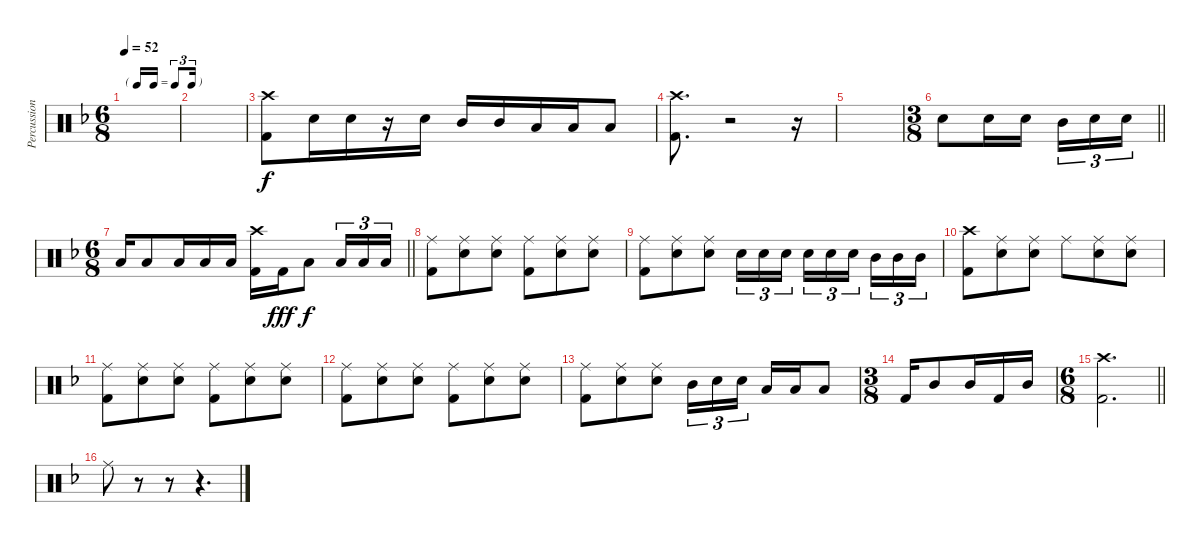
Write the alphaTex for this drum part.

\track ("Percussion" "Percussion") {instrument percussion}
\staff {score}
\articulation defaults
\ts (6 8)
\tf triplet16th
\tempo 52
\clef neutral
\ks f
|
|
("Crash high (hit)" "Kick (hit) 2").8 "Snare (hit) 2".16 "Snare (hit) 2".16 r.16 "Snare (hit) 2".16 "Mid Tom (hit)".16 "Mid Tom (hit)".16 "Low Floor Tom (hit)".16 "Low Floor Tom (hit)".16 "Low Floor Tom (hit)".8 |
("Crash high (hit)" "Kick (hit) 2").8{d} r.2 r.16 |
|
\ts (3 8)
\barLineRight lightlight "Snare (hit) 2".8 "Snare (hit) 2".16 "Snare (hit) 2".16 "Mid Tom (hit)".16{tu (3 2)} "Snare (hit) 2".16{tu (3 2)} "Snare (hit) 2".16{tu (3 2)}
|
\ts (6 8)
\barLineRight lightlight "Low Floor Tom (hit)".16 "Low Floor Tom (hit)".8 "Low Floor Tom (hit)".16 "Low Floor Tom (hit)".16 "Low Floor Tom (hit)".16
("Crash high (hit)" "Kick (hit) 2").16 "Kick (hit) 2".16{dy fff} "Low Floor Tom (hit)".8{dy f} "Low Floor Tom (hit)".16{tu (3 2)} "Low Floor Tom (hit)".16{tu (3 2)} "Low Floor Tom (hit)".16{tu (3 2)} |
("Ride (middle)" "Kick (hit) 2").8 ("Ride (middle)" "Snare (hit) 2").8 ("Ride (middle)" "Snare (hit) 2").8 ("Ride (middle)" "Kick (hit) 2").8 ("Ride (middle)" "Snare (hit) 2").8 ("Ride (middle)" "Snare (hit) 2").8 |
("Ride (middle)" "Kick (hit) 2").8 ("Ride (middle)" "Snare (hit) 2").8 ("Ride (middle)" "Snare (hit) 2").8 "Snare (hit) 2".16{tu (3 2)} "Snare (hit) 2".16{tu (3 2)} "Snare (hit) 2".16{tu (3 2) beam splitsecondary} "Snare (hit) 2".16{tu (3 2)} "Snare (hit) 2".16{tu (3 2)} "Snare (hit) 2".16{tu (3 2) beam splitsecondary} "Mid Tom (hit)".16{tu (3 2)} "Mid Tom (hit)".16{tu (3 2)} "Mid Tom (hit)".16{tu (3 2)} |
("Crash high (hit)" "Kick (hit) 2").8 ("Ride (middle)" "Snare (hit) 2").8 ("Ride (middle)" "Snare (hit) 2").8 "Ride (middle)".8 ("Ride (middle)" "Snare (hit) 2").8 ("Ride (middle)" "Snare (hit) 2").8 |
("Ride (middle)" "Kick (hit) 2").8 ("Ride (middle)" "Snare (hit) 2").8 ("Ride (middle)" "Snare (hit) 2").8 ("Ride (middle)" "Kick (hit) 2").8 ("Ride (middle)" "Snare (hit) 2").8 ("Ride (middle)" "Snare (hit) 2").8 |
("Ride (middle)" "Kick (hit) 2").8 ("Ride (middle)" "Snare (hit) 2").8 ("Ride (middle)" "Snare (hit) 2").8 ("Ride (middle)" "Kick (hit) 2").8 ("Ride (middle)" "Snare (hit) 2").8 ("Ride (middle)" "Snare (hit) 2").8 |
("Ride (middle)" "Kick (hit) 2").8 ("Ride (middle)" "Snare (hit) 2").8 ("Ride (middle)" "Snare (hit) 2").8 "Mid Tom (hit)".16{tu (3 2)} "Snare (hit) 2".16{tu (3 2)} "Snare (hit) 2".16{tu (3 2) beam splitsecondary} "Low Floor Tom (hit)".16 "Low Floor Tom (hit)".16 "Low Floor Tom (hit)".8 |
\ts (3 8)
"Kick (hit) 2".16 "Mid Tom (hit)".8 "Mid Tom (hit)".16 "Kick (hit) 2".16 "Mid Tom (hit)".16 |
\ts (6 8)
\barLineRight lightlight
("Crash high (hit)" "Kick (hit) 2").2{d} |
"Ride (middle)".8 r.8 r.8 r.4{d}
